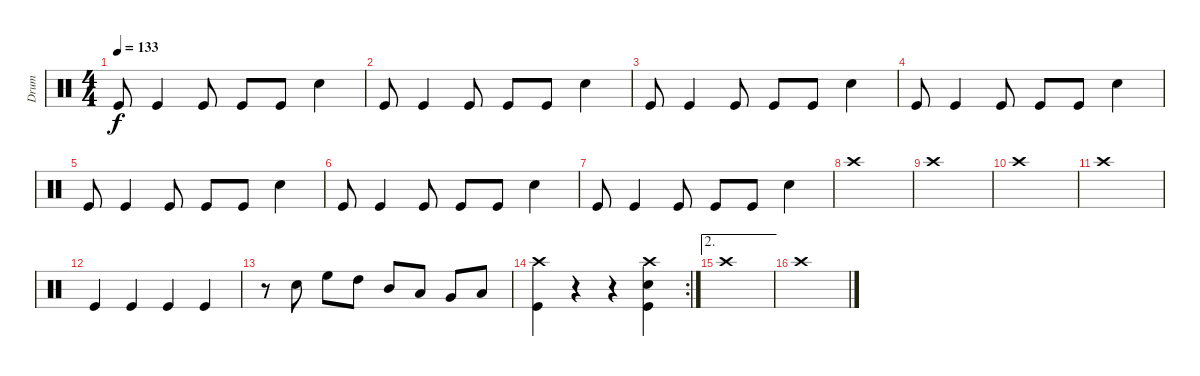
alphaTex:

\track ("Drum" "Drum") {instrument percussion}
\staff {score}
\articulation defaults
\ts (4 4)
\tempo 133
\clef neutral
\ks c "Kick (hit)".8{dy f} "Kick (hit)".4 "Kick (hit)".8 "Kick (hit)".8 "Kick (hit)".8 "Snare (hit) 2".4
|
"Kick (hit)".8 "Kick (hit)".4 "Kick (hit)".8 "Kick (hit)".8 "Kick (hit)".8 "Snare (hit) 2".4 |
"Kick (hit)".8 "Kick (hit)".4 "Kick (hit)".8 "Kick (hit)".8 "Kick (hit)".8 "Snare (hit) 2".4 |
"Kick (hit)".8 "Kick (hit)".4 "Kick (hit)".8 "Kick (hit)".8 "Kick (hit)".8 "Snare (hit) 2".4 |
"Kick (hit)".8 "Kick (hit)".4 "Kick (hit)".8 "Kick (hit)".8 "Kick (hit)".8 "Snare (hit) 2".4 |
"Kick (hit)".8 "Kick (hit)".4 "Kick (hit)".8 "Kick (hit)".8 "Kick (hit)".8 "Snare (hit) 2".4 |
"Kick (hit)".8 "Kick (hit)".4 "Kick (hit)".8 "Kick (hit)".8 "Kick (hit)".8 "Snare (hit) 2".4 |
"Crash high (hit)".1 |
"Crash high (hit)".1 |
"Crash high (hit)".1 |
"Crash high (hit)".1 |
"Kick (hit)".4 "Kick (hit)".4 "Kick (hit)".4 "Kick (hit)".4 |
r.8 "Snare (hit) 2".8 "High Floor Tom (hit)".8 "High Tom (hit)".8 "Mid Tom (hit)".8 "Low Tom (hit)".8 "Very Low Tom (hit)".8 "Low Floor Tom (hit)".8 |
\rc 2
("Crash high (hit)" "Kick (hit)").4 r.4 r.4 ("Crash high (hit)" "Snare (hit) 2" "Kick (hit)").4 |
\ae 2 "Crash high (hit)".1
|
"Crash high (hit)".1
